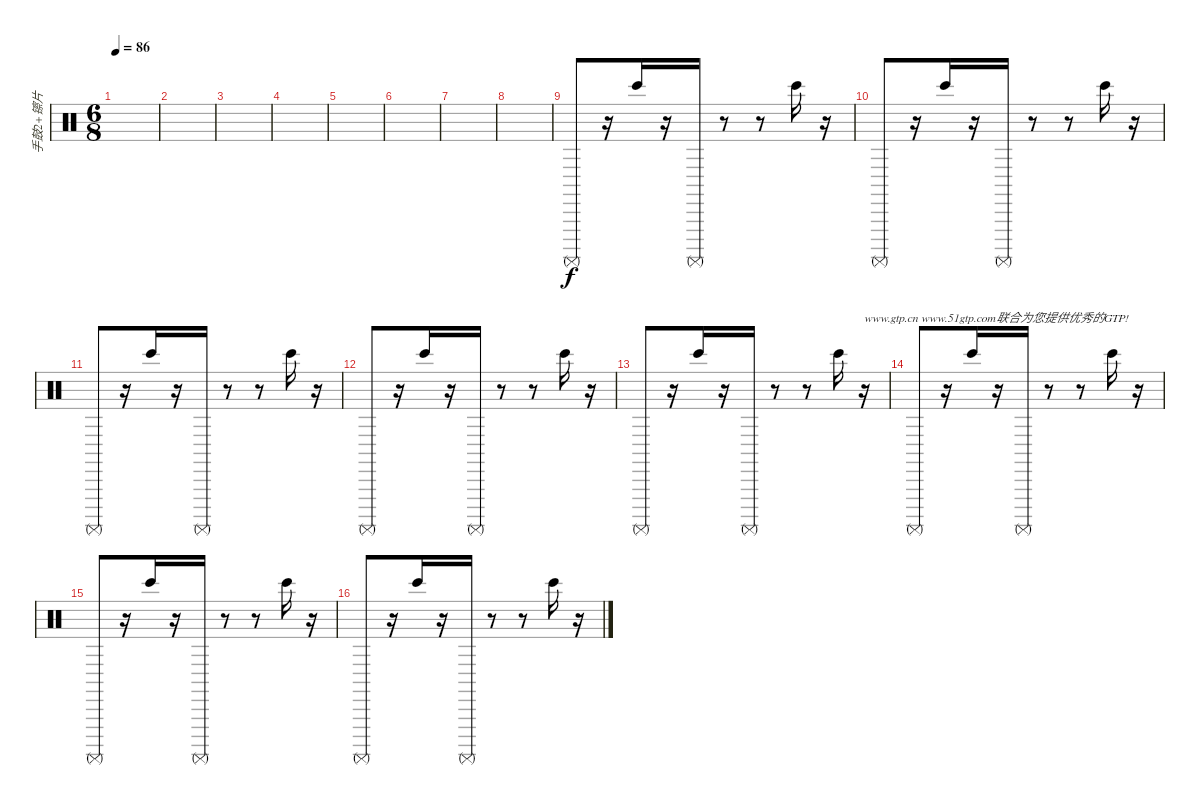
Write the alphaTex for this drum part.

\track ("手鼓2+镲片" "手鼓2+镲片") {instrument percussion}
\staff {score}
\articulation defaults
\ts (6 8)
\tempo 86
\clef neutral
\ks c
|
|
|
|
|
|
|
|
"Surdo (mute)".8 r.16 "Bongo High (hit)".16 r.16 "Surdo (mute)".16 r.8 r.8 "Bongo High (hit)".16 r.16 |
"Surdo (mute)".8 r.16 "Bongo High (hit)".16 r.16 "Surdo (mute)".16 r.8 r.8 "Bongo High (hit)".16 r.16 |
"Surdo (mute)".8 r.16 "Bongo High (hit)".16 r.16 "Surdo (mute)".16 r.8 r.8 "Bongo High (hit)".16 r.16 |
"Surdo (mute)".8 r.16 "Bongo High (hit)".16 r.16 "Surdo (mute)".16 r.8 r.8 "Bongo High (hit)".16 r.16 |
"Surdo (mute)".8 r.16 "Bongo High (hit)".16 r.16 "Surdo (mute)".16 r.8 r.8 "Bongo High (hit)".16 r.16{txt "www.gtp.cn www.51gtp.com联合为您提供优秀的GTP!"} |
"Surdo (mute)".8 r.16 "Bongo High (hit)".16 r.16 "Surdo (mute)".16 r.8 r.8 "Bongo High (hit)".16 r.16 |
"Surdo (mute)".8 r.16 "Bongo High (hit)".16 r.16 "Surdo (mute)".16 r.8 r.8 "Bongo High (hit)".16 r.16 |
"Surdo (mute)".8 r.16 "Bongo High (hit)".16 r.16 "Surdo (mute)".16 r.8 r.8 "Bongo High (hit)".16 r.16
